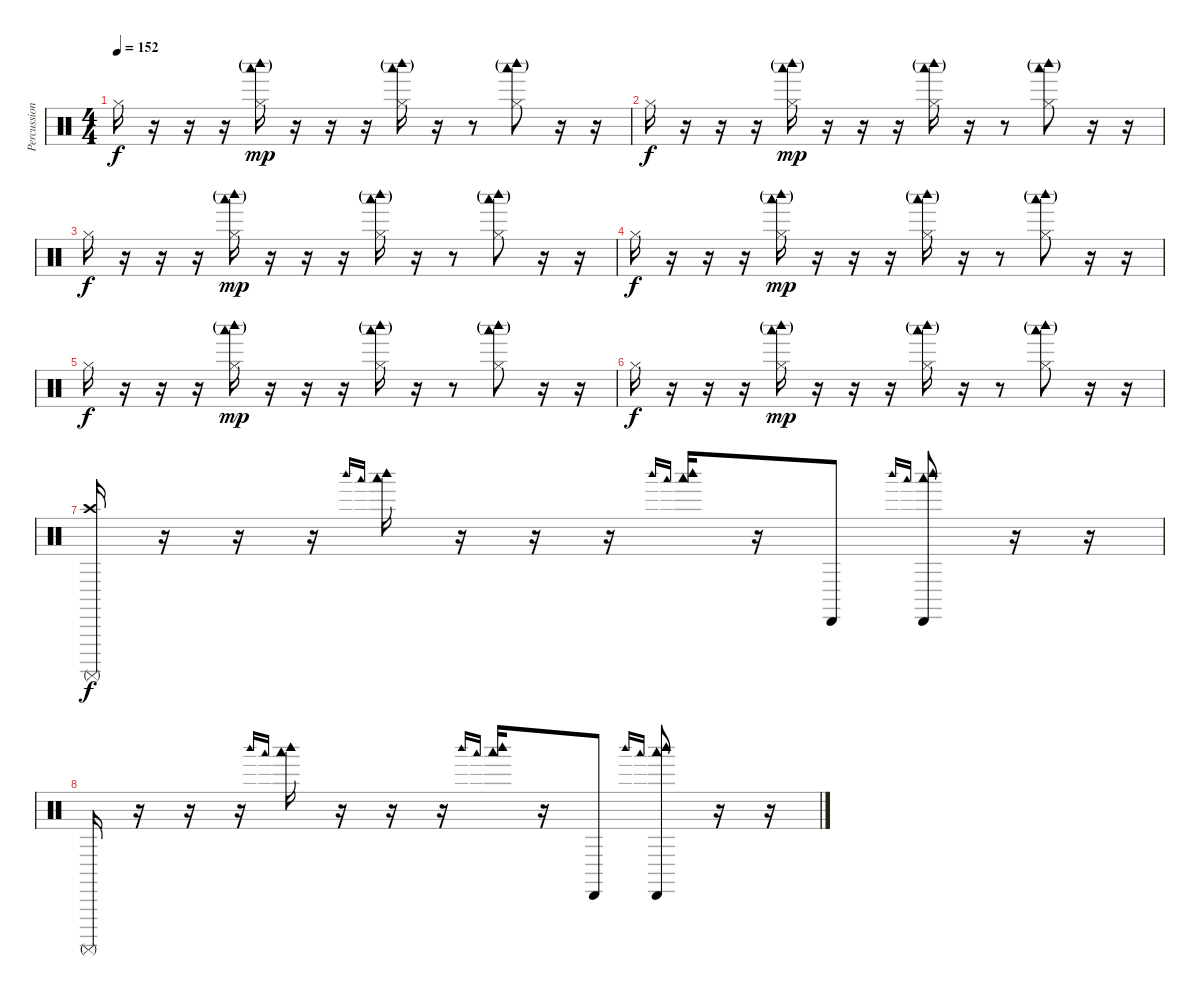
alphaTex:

\track ("Percussion" "Percussion") {instrument percussion}
\staff {score}
\articulation defaults
\ts (4 4)
\tempo 152
\clef neutral
\ks c "Hi-Hat (closed)".16{dy f}
r.16 r.16 r.16 ("Hi-Hat (closed)" "Woodblock high (hit)"{g} "Woodblock low (hit)"{g}).16{dy mp} r.16 r.16 r.16 ("Hi-Hat (closed)" "Woodblock high (hit)"{g} "Woodblock low (hit)"{g}).16 r.16 r.8 ("Hi-Hat (closed)" "Woodblock high (hit)"{g} "Woodblock low (hit)"{g}).8 r.16 r.16 |
"Hi-Hat (closed)".16{dy f} r.16 r.16 r.16 ("Hi-Hat (closed)" "Woodblock high (hit)"{g} "Woodblock low (hit)"{g}).16{dy mp} r.16 r.16 r.16 ("Hi-Hat (closed)" "Woodblock high (hit)"{g} "Woodblock low (hit)"{g}).16 r.16 r.8 ("Hi-Hat (closed)" "Woodblock high (hit)"{g} "Woodblock low (hit)"{g}).8 r.16 r.16 |
"Hi-Hat (closed)".16{dy f} r.16 r.16 r.16 ("Hi-Hat (closed)" "Woodblock high (hit)"{g} "Woodblock low (hit)"{g}).16{dy mp} r.16 r.16 r.16 ("Hi-Hat (closed)" "Woodblock high (hit)"{g} "Woodblock low (hit)"{g}).16 r.16 r.8 ("Hi-Hat (closed)" "Woodblock high (hit)"{g} "Woodblock low (hit)"{g}).8 r.16 r.16 |
"Hi-Hat (closed)".16{dy f} r.16 r.16 r.16 ("Hi-Hat (closed)" "Woodblock high (hit)"{g} "Woodblock low (hit)"{g}).16{dy mp} r.16 r.16 r.16 ("Hi-Hat (closed)" "Woodblock high (hit)"{g} "Woodblock low (hit)"{g}).16 r.16 r.8 ("Hi-Hat (closed)" "Woodblock high (hit)"{g} "Woodblock low (hit)"{g}).8 r.16 r.16 |
"Hi-Hat (closed)".16{dy f} r.16 r.16 r.16 ("Hi-Hat (closed)" "Woodblock high (hit)"{g} "Woodblock low (hit)"{g}).16{dy mp} r.16 r.16 r.16 ("Hi-Hat (closed)" "Woodblock high (hit)"{g} "Woodblock low (hit)"{g}).16 r.16 r.8 ("Hi-Hat (closed)" "Woodblock high (hit)"{g} "Woodblock low (hit)"{g}).8 r.16 r.16 |
"Hi-Hat (closed)".16{dy f} r.16 r.16 r.16 ("Hi-Hat (closed)" "Woodblock high (hit)"{g} "Woodblock low (hit)"{g}).16{dy mp} r.16 r.16 r.16 ("Hi-Hat (closed)" "Woodblock high (hit)"{g} "Woodblock low (hit)"{g}).16 r.16 r.8 ("Hi-Hat (closed)" "Woodblock high (hit)"{g} "Woodblock low (hit)"{g}).8 r.16 r.16 |
("Crash high (hit)" "Surdo (mute)").16{dy f} r.16 r.16 r.16 "Woodblock high (hit)".16{gr onbeat} "Woodblock low (hit)".16{gr onbeat} ("Woodblock high (hit)" "Woodblock low (hit)").16 r.16 r.16 r.16 "Woodblock high (hit)".16{gr onbeat} "Woodblock low (hit)".16{gr onbeat} ("Woodblock high (hit)" "Woodblock low (hit)").16 r.16 "Cabasa (hit)".8 "Woodblock high (hit)".16{gr onbeat} "Woodblock low (hit)".16{gr onbeat} ("Cabasa (hit)" "Woodblock high (hit)" "Woodblock low (hit)").8 r.16 r.16 |
"Surdo (mute)".16 r.16 r.16 r.16 "Woodblock high (hit)".16{gr onbeat} "Woodblock low (hit)".16{gr onbeat} ("Woodblock high (hit)" "Woodblock low (hit)").16 r.16 r.16 r.16 "Woodblock high (hit)".16{gr onbeat} "Woodblock low (hit)".16{gr onbeat} ("Woodblock high (hit)" "Woodblock low (hit)").16 r.16 "Cabasa (hit)".8 "Woodblock high (hit)".16{gr onbeat} "Woodblock low (hit)".16{gr onbeat} ("Cabasa (hit)" "Woodblock high (hit)" "Woodblock low (hit)").8 r.16 r.16
